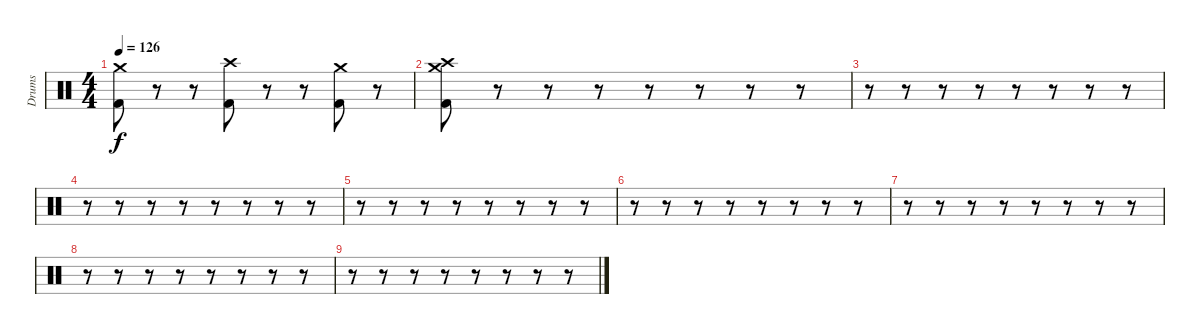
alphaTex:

\track ("Drums" "Drums") {instrument percussion}
\staff {score}
\articulation defaults
\ts (4 4)
\tempo 126
\clef neutral
\ks c
("Crash medium (hit)" "Kick (hit) 2").8{dy f} r.8 r.8 ("Crash high (hit)" "Kick (hit) 2").8 r.8 r.8 ("Crash medium (hit)" "Kick (hit) 2").8 r.8 |
("Crash medium (hit)" "Crash high (hit)" "Kick (hit) 2").8 r.8 r.8 r.8 r.8 r.8 r.8 r.8 |
r.8 r.8 r.8 r.8 r.8 r.8 r.8 r.8 |
r.8 r.8 r.8 r.8 r.8 r.8 r.8 r.8 |
r.8 r.8 r.8 r.8 r.8 r.8 r.8 r.8 |
r.8 r.8 r.8 r.8 r.8 r.8 r.8 r.8 |
r.8 r.8 r.8 r.8 r.8 r.8 r.8 r.8 |
r.8 r.8 r.8 r.8 r.8 r.8 r.8 r.8 |
r.8 r.8 r.8 r.8 r.8 r.8 r.8 r.8
